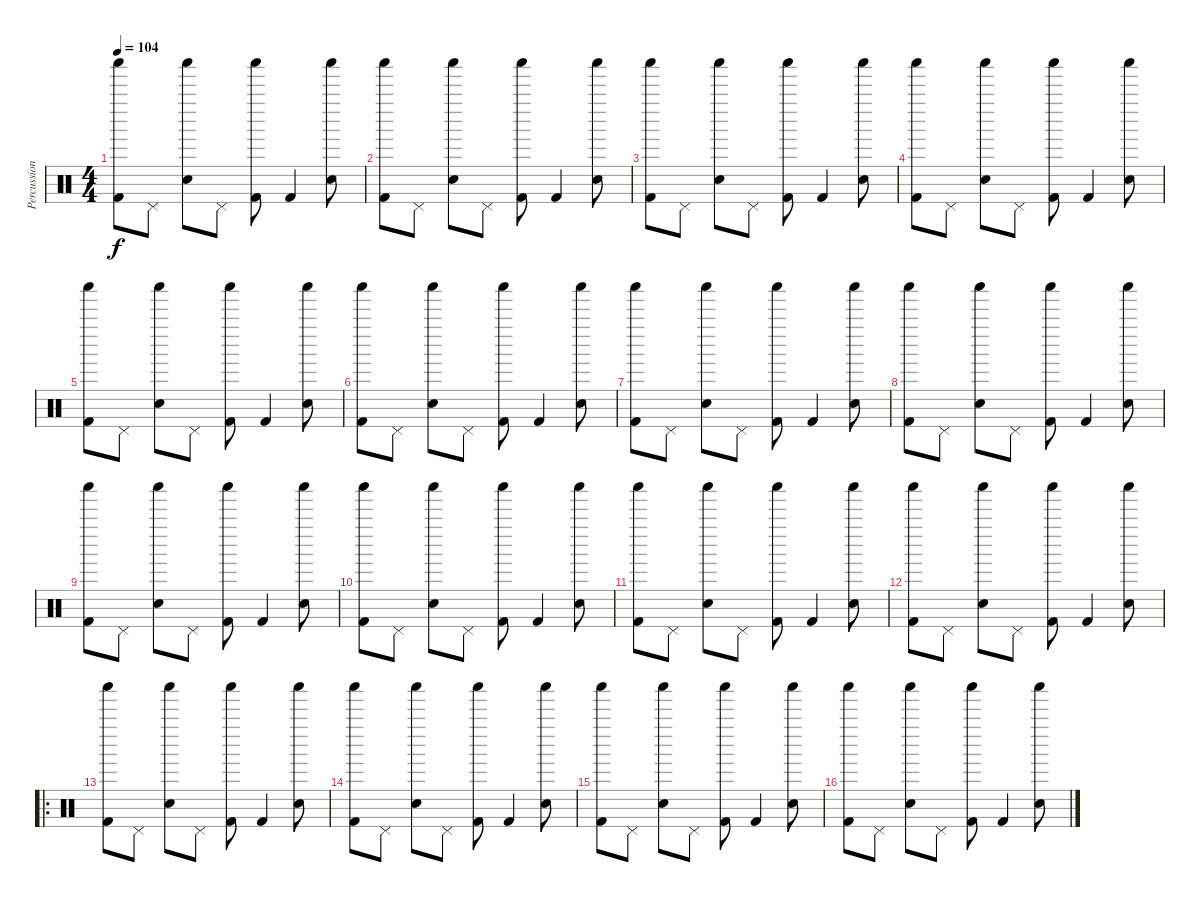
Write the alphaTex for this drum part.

\track ("Percussion" "Percussion") {instrument percussion}
\staff {score}
\articulation defaults
\ts (4 4)
\tempo 104
\clef neutral
\ks c
("Shaker (hit)" "Kick (hit) 2").8{dy f} "Pedal Hi-Hat (hit)".8 ("Shaker (hit)" "Electric Snare (hit)").8 "Pedal Hi-Hat (hit)".8 ("Shaker (hit)" "Kick (hit) 2").8 "Kick (hit) 2".4 ("Shaker (hit)" "Electric Snare (hit)").8 |
("Shaker (hit)" "Kick (hit) 2").8 "Pedal Hi-Hat (hit)".8 ("Shaker (hit)" "Electric Snare (hit)").8 "Pedal Hi-Hat (hit)".8 ("Shaker (hit)" "Kick (hit) 2").8 "Kick (hit) 2".4 ("Shaker (hit)" "Electric Snare (hit)").8 |
("Shaker (hit)" "Kick (hit) 2").8 "Pedal Hi-Hat (hit)".8 ("Shaker (hit)" "Electric Snare (hit)").8 "Pedal Hi-Hat (hit)".8 ("Shaker (hit)" "Kick (hit) 2").8 "Kick (hit) 2".4 ("Shaker (hit)" "Electric Snare (hit)").8 |
("Shaker (hit)" "Kick (hit) 2").8 "Pedal Hi-Hat (hit)".8 ("Shaker (hit)" "Electric Snare (hit)").8 "Pedal Hi-Hat (hit)".8 ("Shaker (hit)" "Kick (hit) 2").8 "Kick (hit) 2".4 ("Shaker (hit)" "Electric Snare (hit)").8 |
("Shaker (hit)" "Kick (hit) 2").8 "Pedal Hi-Hat (hit)".8 ("Shaker (hit)" "Electric Snare (hit)").8 "Pedal Hi-Hat (hit)".8 ("Shaker (hit)" "Kick (hit) 2").8 "Kick (hit) 2".4 ("Shaker (hit)" "Electric Snare (hit)").8 |
("Shaker (hit)" "Kick (hit) 2").8 "Pedal Hi-Hat (hit)".8 ("Shaker (hit)" "Electric Snare (hit)").8 "Pedal Hi-Hat (hit)".8 ("Shaker (hit)" "Kick (hit) 2").8 "Kick (hit) 2".4 ("Shaker (hit)" "Electric Snare (hit)").8 |
("Shaker (hit)" "Kick (hit) 2").8 "Pedal Hi-Hat (hit)".8 ("Shaker (hit)" "Electric Snare (hit)").8 "Pedal Hi-Hat (hit)".8 ("Shaker (hit)" "Kick (hit) 2").8 "Kick (hit) 2".4 ("Shaker (hit)" "Electric Snare (hit)").8 |
("Shaker (hit)" "Kick (hit) 2").8 "Pedal Hi-Hat (hit)".8 ("Shaker (hit)" "Electric Snare (hit)").8 "Pedal Hi-Hat (hit)".8 ("Shaker (hit)" "Kick (hit) 2").8 "Kick (hit) 2".4 ("Shaker (hit)" "Electric Snare (hit)").8 |
("Shaker (hit)" "Kick (hit) 2").8 "Pedal Hi-Hat (hit)".8 ("Shaker (hit)" "Electric Snare (hit)").8 "Pedal Hi-Hat (hit)".8 ("Shaker (hit)" "Kick (hit) 2").8 "Kick (hit) 2".4 ("Shaker (hit)" "Electric Snare (hit)").8 |
("Shaker (hit)" "Kick (hit) 2").8 "Pedal Hi-Hat (hit)".8 ("Shaker (hit)" "Electric Snare (hit)").8 "Pedal Hi-Hat (hit)".8 ("Shaker (hit)" "Kick (hit) 2").8 "Kick (hit) 2".4 ("Shaker (hit)" "Electric Snare (hit)").8 |
("Shaker (hit)" "Kick (hit) 2").8 "Pedal Hi-Hat (hit)".8 ("Shaker (hit)" "Electric Snare (hit)").8 "Pedal Hi-Hat (hit)".8 ("Shaker (hit)" "Kick (hit) 2").8 "Kick (hit) 2".4 ("Shaker (hit)" "Electric Snare (hit)").8 |
("Shaker (hit)" "Kick (hit) 2").8 "Pedal Hi-Hat (hit)".8 ("Shaker (hit)" "Electric Snare (hit)").8 "Pedal Hi-Hat (hit)".8 ("Shaker (hit)" "Kick (hit) 2").8 "Kick (hit) 2".4 ("Shaker (hit)" "Electric Snare (hit)").8 |
\ro
("Shaker (hit)" "Kick (hit) 2").8 "Pedal Hi-Hat (hit)".8 ("Shaker (hit)" "Electric Snare (hit)").8 "Pedal Hi-Hat (hit)".8 ("Shaker (hit)" "Kick (hit) 2").8 "Kick (hit) 2".4 ("Shaker (hit)" "Electric Snare (hit)").8 |
("Shaker (hit)" "Kick (hit) 2").8 "Pedal Hi-Hat (hit)".8 ("Shaker (hit)" "Electric Snare (hit)").8 "Pedal Hi-Hat (hit)".8 ("Shaker (hit)" "Kick (hit) 2").8 "Kick (hit) 2".4 ("Shaker (hit)" "Electric Snare (hit)").8 |
("Shaker (hit)" "Kick (hit) 2").8 "Pedal Hi-Hat (hit)".8 ("Shaker (hit)" "Electric Snare (hit)").8 "Pedal Hi-Hat (hit)".8 ("Shaker (hit)" "Kick (hit) 2").8 "Kick (hit) 2".4 ("Shaker (hit)" "Electric Snare (hit)").8 |
("Shaker (hit)" "Kick (hit) 2").8 "Pedal Hi-Hat (hit)".8 ("Shaker (hit)" "Electric Snare (hit)").8 "Pedal Hi-Hat (hit)".8 ("Shaker (hit)" "Kick (hit) 2").8 "Kick (hit) 2".4 ("Shaker (hit)" "Electric Snare (hit)").8
